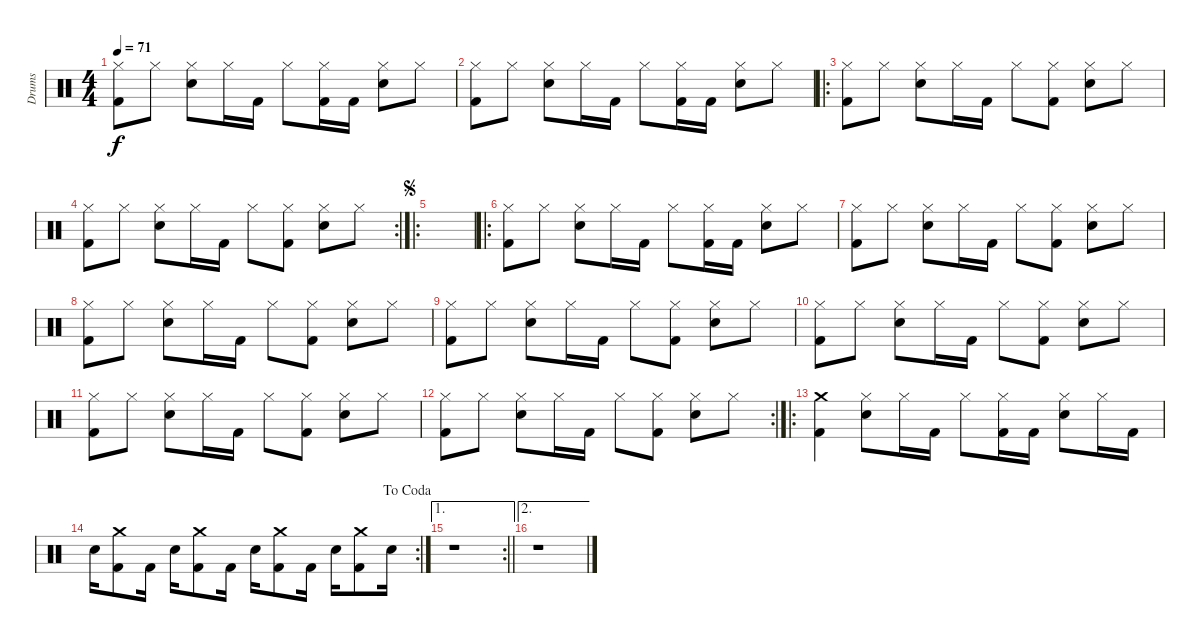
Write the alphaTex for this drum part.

\track ("Drums" "Drums") {instrument percussion}
\staff {score}
\articulation defaults
\ts (4 4)
\tempo 71
\clef neutral
\ks c
("Hi-Hat (closed)" "Kick (hit) 2").8{dy f} "Hi-Hat (closed)".8 ("Hi-Hat (closed)" "Snare (hit) 2").8 "Hi-Hat (closed)".16 "Kick (hit) 2".16 "Hi-Hat (closed)".8 ("Kick (hit) 2" "Hi-Hat (closed)").16 "Kick (hit) 2".16 ("Hi-Hat (closed)" "Snare (hit) 2").8 "Hi-Hat (closed)".8 |
("Hi-Hat (closed)" "Kick (hit) 2").8 "Hi-Hat (closed)".8 ("Hi-Hat (closed)" "Snare (hit) 2").8 "Hi-Hat (closed)".16 "Kick (hit) 2".16 "Hi-Hat (closed)".8 ("Kick (hit) 2" "Hi-Hat (closed)").16 "Kick (hit) 2".16 ("Hi-Hat (closed)" "Snare (hit) 2").8 "Hi-Hat (closed)".8 |
\ro
("Hi-Hat (closed)" "Kick (hit) 2").8 "Hi-Hat (closed)".8 ("Hi-Hat (closed)" "Snare (hit) 2").8 "Hi-Hat (closed)".16 "Kick (hit) 2".16 "Hi-Hat (closed)".8 ("Kick (hit) 2" "Hi-Hat (closed)").8 ("Hi-Hat (closed)" "Snare (hit) 2").8 "Hi-Hat (closed)".8 |
\rc 2
("Hi-Hat (closed)" "Kick (hit) 2").8 "Hi-Hat (closed)".8 ("Hi-Hat (closed)" "Snare (hit) 2").8 "Hi-Hat (closed)".16 "Kick (hit) 2".16 "Hi-Hat (closed)".8 ("Kick (hit) 2" "Hi-Hat (closed)").8 ("Hi-Hat (closed)" "Snare (hit) 2").8 "Hi-Hat (closed)".8 |
\ro
\jump segno
|
\ro
("Hi-Hat (closed)" "Kick (hit) 2").8 "Hi-Hat (closed)".8 ("Hi-Hat (closed)" "Snare (hit) 2").8 "Hi-Hat (closed)".16 "Kick (hit) 2".16 "Hi-Hat (closed)".8 ("Kick (hit) 2" "Hi-Hat (closed)").16 "Kick (hit) 2".16 ("Hi-Hat (closed)" "Snare (hit) 2").8 "Hi-Hat (closed)".8 |
("Hi-Hat (closed)" "Kick (hit) 2").8 "Hi-Hat (closed)".8 ("Hi-Hat (closed)" "Snare (hit) 2").8 "Hi-Hat (closed)".16 "Kick (hit) 2".16 "Hi-Hat (closed)".8 ("Kick (hit) 2" "Hi-Hat (closed)").8 ("Hi-Hat (closed)" "Snare (hit) 2").8 "Hi-Hat (closed)".8 |
("Hi-Hat (closed)" "Kick (hit) 2").8 "Hi-Hat (closed)".8 ("Hi-Hat (closed)" "Snare (hit) 2").8 "Hi-Hat (closed)".16 "Kick (hit) 2".16 "Hi-Hat (closed)".8 ("Kick (hit) 2" "Hi-Hat (closed)").8 ("Hi-Hat (closed)" "Snare (hit) 2").8 "Hi-Hat (closed)".8 |
("Hi-Hat (closed)" "Kick (hit) 2").8 "Hi-Hat (closed)".8 ("Hi-Hat (closed)" "Snare (hit) 2").8 "Hi-Hat (closed)".16 "Kick (hit) 2".16 "Hi-Hat (closed)".8 ("Kick (hit) 2" "Hi-Hat (closed)").8 ("Hi-Hat (closed)" "Snare (hit) 2").8 "Hi-Hat (closed)".8 |
("Hi-Hat (closed)" "Kick (hit) 2").8 "Hi-Hat (closed)".8 ("Hi-Hat (closed)" "Snare (hit) 2").8 "Hi-Hat (closed)".16 "Kick (hit) 2".16 "Hi-Hat (closed)".8 ("Kick (hit) 2" "Hi-Hat (closed)").8 ("Hi-Hat (closed)" "Snare (hit) 2").8 "Hi-Hat (closed)".8 |
("Hi-Hat (closed)" "Kick (hit) 2").8 "Hi-Hat (closed)".8 ("Hi-Hat (closed)" "Snare (hit) 2").8 "Hi-Hat (closed)".16 "Kick (hit) 2".16 "Hi-Hat (closed)".8 ("Kick (hit) 2" "Hi-Hat (closed)").8 ("Hi-Hat (closed)" "Snare (hit) 2").8 "Hi-Hat (closed)".8 |
\rc 2
("Hi-Hat (closed)" "Kick (hit) 2").8 "Hi-Hat (closed)".8 ("Hi-Hat (closed)" "Snare (hit) 2").8 "Hi-Hat (closed)".16 "Kick (hit) 2".16 "Hi-Hat (closed)".8 ("Kick (hit) 2" "Hi-Hat (closed)").8 ("Hi-Hat (closed)" "Snare (hit) 2").8 "Hi-Hat (closed)".8 |
\ro
("Crash medium (hit)" "Kick (hit) 2").4 ("Snare (hit) 2" "Hi-Hat (closed)").8 "Hi-Hat (closed)".16 "Kick (hit) 2".16 "Hi-Hat (closed)".8 ("Hi-Hat (closed)" "Kick (hit) 2").16 "Kick (hit) 2".16 ("Hi-Hat (closed)" "Snare (hit) 2").8 "Hi-Hat (closed)".16 "Kick (hit) 2".16 |
\rc 2
\jump dacoda "Snare (hit) 2".16
("Crash medium (hit)" "Kick (hit) 2").8 "Kick (hit) 2".16 "Snare (hit) 2".16 ("Crash medium (hit)" "Kick (hit) 2").8 "Kick (hit) 2".16 "Snare (hit) 2".16 ("Crash medium (hit)" "Kick (hit) 2").8 "Kick (hit) 2".16 "Snare (hit) 2".16 ("Crash medium (hit)" "Kick (hit) 2").8 "Snare (hit) 2".16 |
\ae 1
\rc 2
\barLineRight lightlight
r.1 |
\ae 2
r.1
